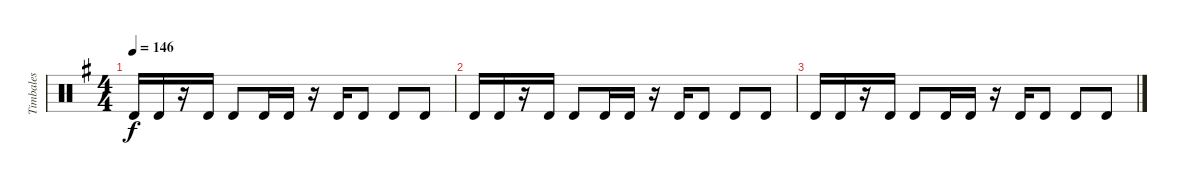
\track ("Timbales" "Timbales") {instrument percussion}
\staff {score}
\articulation defaults
\ts (4 4)
\tempo 146
\clef neutral
\ks g "Timbale high (hit)".16{dy f} "Timbale high (hit)".16
r.16 "Timbale high (hit)".16 "Timbale high (hit)".8 "Timbale high (hit)".16 "Timbale high (hit)".16 r.16 "Timbale high (hit)".16 "Timbale high (hit)".8 "Timbale high (hit)".8 "Timbale high (hit)".8 |
"Timbale high (hit)".16 "Timbale high (hit)".16 r.16 "Timbale high (hit)".16 "Timbale high (hit)".8 "Timbale high (hit)".16 "Timbale high (hit)".16 r.16 "Timbale high (hit)".16 "Timbale high (hit)".8 "Timbale high (hit)".8 "Timbale high (hit)".8 |
"Timbale high (hit)".16 "Timbale high (hit)".16 r.16 "Timbale high (hit)".16 "Timbale high (hit)".8 "Timbale high (hit)".16 "Timbale high (hit)".16 r.16 "Timbale high (hit)".16 "Timbale high (hit)".8 "Timbale high (hit)".8 "Timbale high (hit)".8
